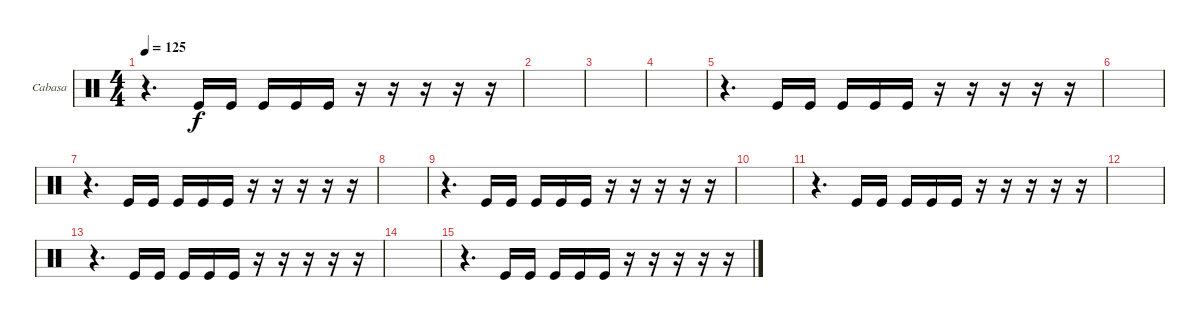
\bracketExtendMode groupsimilarinstruments
\firstSystemTrackNameOrientation horizontal
\otherSystemsTrackNameOrientation horizontal
\track ("Cabasa" "Cabasa") {instrument percussion}
\staff {score}
\articulation defaults
\ts (4 4)
\tempo 125
\clef neutral
\ks c
r.4{d dy f} "Kick (hit)".16 "Kick (hit)".16 "Kick (hit)".16 "Kick (hit)".16 "Kick (hit)".16 r.16 r.16 r.16 r.16 r.16 |
|
|
|
r.4{d} "Kick (hit)".16 "Kick (hit)".16 "Kick (hit)".16 "Kick (hit)".16 "Kick (hit)".16 r.16 r.16 r.16 r.16 r.16 |
|
r.4{d} "Kick (hit)".16 "Kick (hit)".16 "Kick (hit)".16 "Kick (hit)".16 "Kick (hit)".16 r.16 r.16 r.16 r.16 r.16 |
|
r.4{d} "Kick (hit)".16 "Kick (hit)".16 "Kick (hit)".16 "Kick (hit)".16 "Kick (hit)".16 r.16 r.16 r.16 r.16 r.16 |
|
r.4{d} "Kick (hit)".16 "Kick (hit)".16 "Kick (hit)".16 "Kick (hit)".16 "Kick (hit)".16 r.16 r.16 r.16 r.16 r.16 |
|
r.4{d} "Kick (hit)".16 "Kick (hit)".16 "Kick (hit)".16 "Kick (hit)".16 "Kick (hit)".16 r.16 r.16 r.16 r.16 r.16 |
|
r.4{d} "Kick (hit)".16 "Kick (hit)".16 "Kick (hit)".16 "Kick (hit)".16 "Kick (hit)".16 r.16 r.16 r.16 r.16 r.16
